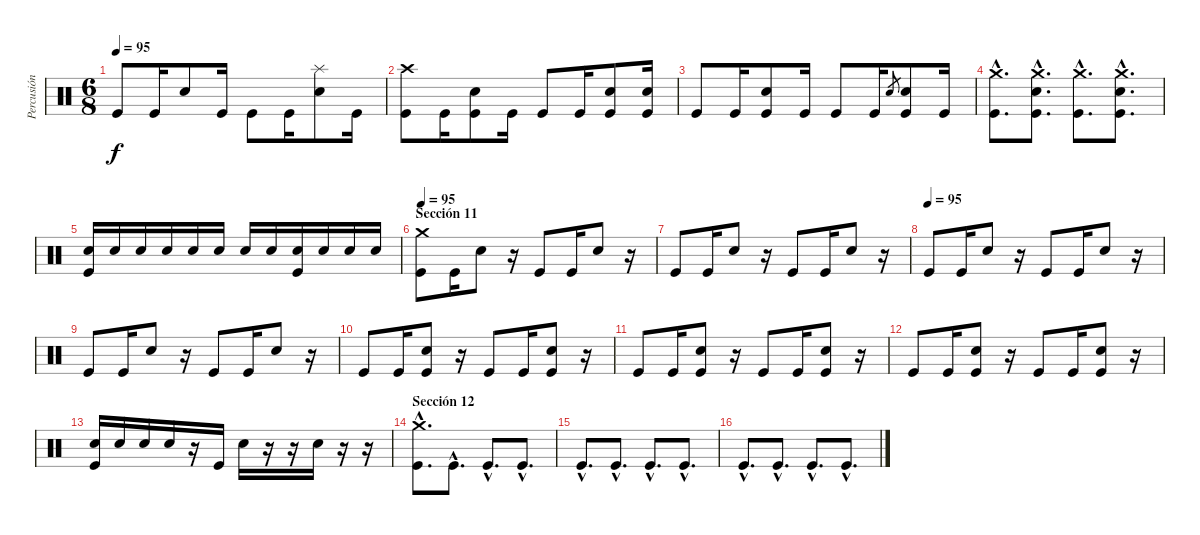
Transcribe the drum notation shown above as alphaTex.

\track ("Percusión" "Percusión") {instrument percussion}
\staff {score}
\articulation defaults
\ts (6 8)
\tempo 95
\clef neutral
\ks c "Kick (hit)".8{dy f} "Kick (hit)".16 "Electric Snare (hit)".8 "Kick (hit)".16 "Kick (hit)".8 "Kick (hit)".16
("Splash (hit)" "Electric Snare (hit)").8 "Kick (hit)".16 |
("Crash high (hit)" "Kick (hit)").8 "Kick (hit)".16 ("Electric Snare (hit)" "Kick (hit)").8 "Kick (hit)".16 "Kick (hit)".8 "Kick (hit)".16 ("Electric Snare (hit)" "Kick (hit)").8 ("Electric Snare (hit)" "Kick (hit)").16 |
"Kick (hit)".8 "Kick (hit)".16 ("Electric Snare (hit)" "Kick (hit)").8 "Kick (hit)".16 "Kick (hit)".8 "Kick (hit)".16 "Electric Snare (hit)".8{gr} ("Electric Snare (hit)" "Kick (hit)").8 "Kick (hit)".16 |
("Crash medium (hit)"{hac} "Kick (hit)"{hac}).8{d} ("Crash medium (hit)"{hac} "Electric Snare (hit)"{hac} "Kick (hit)"{hac}).8{d} ("Crash medium (hit)"{hac} "Kick (hit)"{hac}).8{d} ("Crash medium (hit)"{hac} "Electric Snare (hit)"{hac} "Kick (hit)"{hac}).8{d} |
("Electric Snare (hit)" "Kick (hit)").16 "Electric Snare (hit)".16 "Electric Snare (hit)".16 "Electric Snare (hit)".16 "Electric Snare (hit)".16 "Electric Snare (hit)".16 "Electric Snare (hit)".16 "Electric Snare (hit)".16 ("Electric Snare (hit)" "Kick (hit)").16 "Electric Snare (hit)".16 "Electric Snare (hit)".16 "Electric Snare (hit)".16 |
\section ("" "Sección 11")
\tempo 95
("Crash medium (hit)" "Kick (hit)").8 "Kick (hit)".16 "Electric Snare (hit)".8 r.16 "Kick (hit)".8 "Kick (hit)".16 "Electric Snare (hit)".8 r.16 |
"Kick (hit)".8 "Kick (hit)".16 "Electric Snare (hit)".8 r.16 "Kick (hit)".8 "Kick (hit)".16 "Electric Snare (hit)".8 r.16 |
\tempo (95)
"Kick (hit)".8 "Kick (hit)".16 "Electric Snare (hit)".8 r.16 "Kick (hit)".8 "Kick (hit)".16 "Electric Snare (hit)".8 r.16 |
"Kick (hit)".8 "Kick (hit)".16 "Electric Snare (hit)".8 r.16 "Kick (hit)".8 "Kick (hit)".16 "Electric Snare (hit)".8 r.16 |
"Kick (hit)".8 "Kick (hit)".16 ("Electric Snare (hit)" "Kick (hit)").8 r.16 "Kick (hit)".8 "Kick (hit)".16 ("Electric Snare (hit)" "Kick (hit)").8 r.16 |
"Kick (hit)".8 "Kick (hit)".16 ("Electric Snare (hit)" "Kick (hit)").8 r.16 "Kick (hit)".8 "Kick (hit)".16 ("Electric Snare (hit)" "Kick (hit)").8 r.16 |
"Kick (hit)".8 "Kick (hit)".16 ("Electric Snare (hit)" "Kick (hit)").8 r.16 "Kick (hit)".8 "Kick (hit)".16 ("Electric Snare (hit)" "Kick (hit)").8 r.16 |
("Electric Snare (hit)" "Kick (hit)").16 "Electric Snare (hit)".16 "Electric Snare (hit)".16 "Electric Snare (hit)".16 r.16 "Kick (hit)".16 "Electric Snare (hit)".16 r.16 r.16 "Electric Snare (hit)".16 r.16 r.16 |
\section ("" "Sección 12")
("Crash medium (hit)"{hac} "Kick (hit)"{hac}).8{d} "Kick (hit)"{hac}.8{d} "Kick (hit)"{hac}.8{d} "Kick (hit)"{hac}.8{d} |
"Kick (hit)"{hac}.8{d} "Kick (hit)"{hac}.8{d} "Kick (hit)"{hac}.8{d} "Kick (hit)"{hac}.8{d} |
"Kick (hit)"{hac}.8{d} "Kick (hit)"{hac}.8{d} "Kick (hit)"{hac}.8{d} "Kick (hit)"{hac}.8{d}
